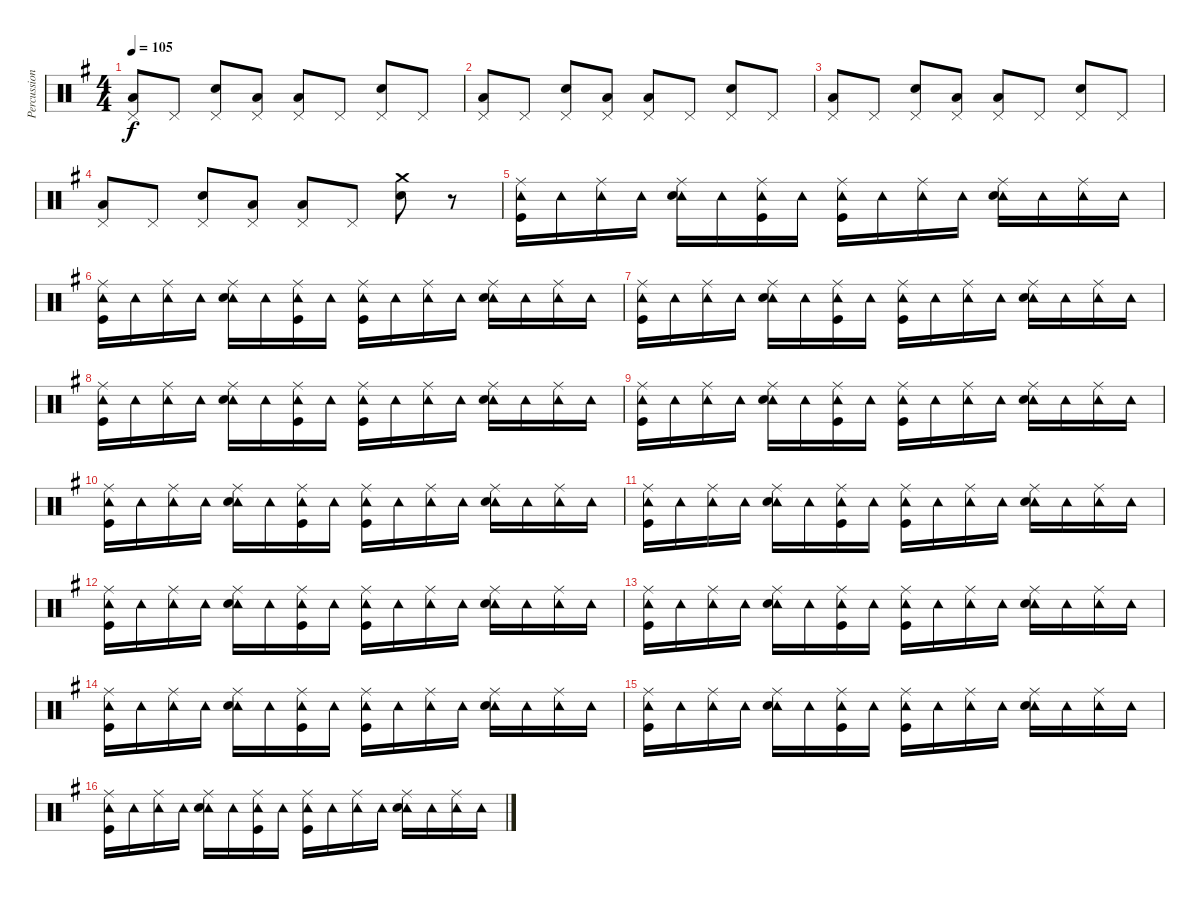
\track ("Percussion" "Percussion") {instrument percussion}
\staff {score}
\articulation defaults
\ts (4 4)
\tempo 105
\clef neutral
\ks g
("Pedal Hi-Hat (hit)" "Low Floor Tom (hit)").8{dy f} "Pedal Hi-Hat (hit)".8 ("Pedal Hi-Hat (hit)" "Snare (hit) 2").8 ("Pedal Hi-Hat (hit)" "Low Floor Tom (hit)").8 ("Pedal Hi-Hat (hit)" "Low Floor Tom (hit)").8 "Pedal Hi-Hat (hit)".8 ("Pedal Hi-Hat (hit)" "Snare (hit) 2").8 "Pedal Hi-Hat (hit)".8 |
("Pedal Hi-Hat (hit)" "Low Floor Tom (hit)").8 "Pedal Hi-Hat (hit)".8 ("Pedal Hi-Hat (hit)" "Snare (hit) 2").8 ("Pedal Hi-Hat (hit)" "Low Floor Tom (hit)").8 ("Pedal Hi-Hat (hit)" "Low Floor Tom (hit)").8 "Pedal Hi-Hat (hit)".8 ("Pedal Hi-Hat (hit)" "Snare (hit) 2").8 "Pedal Hi-Hat (hit)".8 |
("Pedal Hi-Hat (hit)" "Low Floor Tom (hit)").8 "Pedal Hi-Hat (hit)".8 ("Pedal Hi-Hat (hit)" "Snare (hit) 2").8 ("Pedal Hi-Hat (hit)" "Low Floor Tom (hit)").8 ("Pedal Hi-Hat (hit)" "Low Floor Tom (hit)").8 "Pedal Hi-Hat (hit)".8 ("Pedal Hi-Hat (hit)" "Snare (hit) 2").8 "Pedal Hi-Hat (hit)".8 |
("Pedal Hi-Hat (hit)" "Low Floor Tom (hit)").8 "Pedal Hi-Hat (hit)".8 ("Pedal Hi-Hat (hit)" "Snare (hit) 2").8 ("Pedal Hi-Hat (hit)" "Low Floor Tom (hit)").8 ("Pedal Hi-Hat (hit)" "Low Floor Tom (hit)").8 "Pedal Hi-Hat (hit)".8 ("Crash medium (hit)" "Snare (hit) 2").8 r.8 |
("Ride (middle)" "Tambourine (hit)" "Kick (hit)").16 "Tambourine (hit)".16 ("Ride (middle)" "Tambourine (hit)").16 "Tambourine (hit)".16 ("Ride (middle)" "Tambourine (hit)" "Snare (hit) 2").16 "Tambourine (hit)".16 ("Ride (middle)" "Tambourine (hit)" "Kick (hit)").16 "Tambourine (hit)".16 ("Ride (middle)" "Tambourine (hit)" "Kick (hit)").16 "Tambourine (hit)".16 ("Ride (middle)" "Tambourine (hit)").16 "Tambourine (hit)".16 ("Ride (middle)" "Tambourine (hit)" "Snare (hit) 2").16 "Tambourine (hit)".16 ("Ride (middle)" "Tambourine (hit)").16 "Tambourine (hit)".16 |
("Ride (middle)" "Tambourine (hit)" "Kick (hit)").16 "Tambourine (hit)".16 ("Ride (middle)" "Tambourine (hit)").16 "Tambourine (hit)".16 ("Ride (middle)" "Tambourine (hit)" "Snare (hit) 2").16 "Tambourine (hit)".16 ("Ride (middle)" "Tambourine (hit)" "Kick (hit)").16 "Tambourine (hit)".16 ("Ride (middle)" "Tambourine (hit)" "Kick (hit)").16 "Tambourine (hit)".16 ("Ride (middle)" "Tambourine (hit)").16 "Tambourine (hit)".16 ("Ride (middle)" "Tambourine (hit)" "Snare (hit) 2").16 "Tambourine (hit)".16 ("Ride (middle)" "Tambourine (hit)").16 "Tambourine (hit)".16 |
("Ride (middle)" "Tambourine (hit)" "Kick (hit)").16 "Tambourine (hit)".16 ("Ride (middle)" "Tambourine (hit)").16 "Tambourine (hit)".16 ("Ride (middle)" "Tambourine (hit)" "Snare (hit) 2").16 "Tambourine (hit)".16 ("Ride (middle)" "Tambourine (hit)" "Kick (hit)").16 "Tambourine (hit)".16 ("Ride (middle)" "Tambourine (hit)" "Kick (hit)").16 "Tambourine (hit)".16 ("Ride (middle)" "Tambourine (hit)").16 "Tambourine (hit)".16 ("Ride (middle)" "Tambourine (hit)" "Snare (hit) 2").16 "Tambourine (hit)".16 ("Ride (middle)" "Tambourine (hit)").16 "Tambourine (hit)".16 |
("Ride (middle)" "Tambourine (hit)" "Kick (hit)").16 "Tambourine (hit)".16 ("Ride (middle)" "Tambourine (hit)").16 "Tambourine (hit)".16 ("Ride (middle)" "Tambourine (hit)" "Snare (hit) 2").16 "Tambourine (hit)".16 ("Ride (middle)" "Tambourine (hit)" "Kick (hit)").16 "Tambourine (hit)".16 ("Ride (middle)" "Tambourine (hit)" "Kick (hit)").16 "Tambourine (hit)".16 ("Ride (middle)" "Tambourine (hit)").16 "Tambourine (hit)".16 ("Ride (middle)" "Tambourine (hit)" "Snare (hit) 2").16 "Tambourine (hit)".16 ("Ride (middle)" "Tambourine (hit)").16 "Tambourine (hit)".16 |
("Ride (middle)" "Tambourine (hit)" "Kick (hit)").16 "Tambourine (hit)".16 ("Ride (middle)" "Tambourine (hit)").16 "Tambourine (hit)".16 ("Ride (middle)" "Tambourine (hit)" "Snare (hit) 2").16 "Tambourine (hit)".16 ("Ride (middle)" "Tambourine (hit)" "Kick (hit)").16 "Tambourine (hit)".16 ("Ride (middle)" "Tambourine (hit)" "Kick (hit)").16 "Tambourine (hit)".16 ("Ride (middle)" "Tambourine (hit)").16 "Tambourine (hit)".16 ("Ride (middle)" "Tambourine (hit)" "Snare (hit) 2").16 "Tambourine (hit)".16 ("Ride (middle)" "Tambourine (hit)").16 "Tambourine (hit)".16 |
("Ride (middle)" "Tambourine (hit)" "Kick (hit)").16 "Tambourine (hit)".16 ("Ride (middle)" "Tambourine (hit)").16 "Tambourine (hit)".16 ("Ride (middle)" "Tambourine (hit)" "Snare (hit) 2").16 "Tambourine (hit)".16 ("Ride (middle)" "Tambourine (hit)" "Kick (hit)").16 "Tambourine (hit)".16 ("Ride (middle)" "Tambourine (hit)" "Kick (hit)").16 "Tambourine (hit)".16 ("Ride (middle)" "Tambourine (hit)").16 "Tambourine (hit)".16 ("Ride (middle)" "Tambourine (hit)" "Snare (hit) 2").16 "Tambourine (hit)".16 ("Ride (middle)" "Tambourine (hit)").16 "Tambourine (hit)".16 |
("Ride (middle)" "Tambourine (hit)" "Kick (hit)").16 "Tambourine (hit)".16 ("Ride (middle)" "Tambourine (hit)").16 "Tambourine (hit)".16 ("Ride (middle)" "Tambourine (hit)" "Snare (hit) 2").16 "Tambourine (hit)".16 ("Ride (middle)" "Tambourine (hit)" "Kick (hit)").16 "Tambourine (hit)".16 ("Ride (middle)" "Tambourine (hit)" "Kick (hit)").16 "Tambourine (hit)".16 ("Ride (middle)" "Tambourine (hit)").16 "Tambourine (hit)".16 ("Ride (middle)" "Tambourine (hit)" "Snare (hit) 2").16 "Tambourine (hit)".16 ("Ride (middle)" "Tambourine (hit)").16 "Tambourine (hit)".16 |
("Ride (middle)" "Tambourine (hit)" "Kick (hit)").16 "Tambourine (hit)".16 ("Ride (middle)" "Tambourine (hit)").16 "Tambourine (hit)".16 ("Ride (middle)" "Tambourine (hit)" "Snare (hit) 2").16 "Tambourine (hit)".16 ("Ride (middle)" "Tambourine (hit)" "Kick (hit)").16 "Tambourine (hit)".16 ("Ride (middle)" "Tambourine (hit)" "Kick (hit)").16 "Tambourine (hit)".16 ("Ride (middle)" "Tambourine (hit)").16 "Tambourine (hit)".16 ("Ride (middle)" "Tambourine (hit)" "Snare (hit) 2").16 "Tambourine (hit)".16 ("Ride (middle)" "Tambourine (hit)").16 "Tambourine (hit)".16 |
("Ride (middle)" "Tambourine (hit)" "Kick (hit)").16 "Tambourine (hit)".16 ("Ride (middle)" "Tambourine (hit)").16 "Tambourine (hit)".16 ("Ride (middle)" "Tambourine (hit)" "Snare (hit) 2").16 "Tambourine (hit)".16 ("Ride (middle)" "Tambourine (hit)" "Kick (hit)").16 "Tambourine (hit)".16 ("Ride (middle)" "Tambourine (hit)" "Kick (hit)").16 "Tambourine (hit)".16 ("Ride (middle)" "Tambourine (hit)").16 "Tambourine (hit)".16 ("Ride (middle)" "Tambourine (hit)" "Snare (hit) 2").16 "Tambourine (hit)".16 ("Ride (middle)" "Tambourine (hit)").16 "Tambourine (hit)".16 |
("Ride (middle)" "Tambourine (hit)" "Kick (hit)").16 "Tambourine (hit)".16 ("Ride (middle)" "Tambourine (hit)").16 "Tambourine (hit)".16 ("Ride (middle)" "Tambourine (hit)" "Snare (hit) 2").16 "Tambourine (hit)".16 ("Ride (middle)" "Tambourine (hit)" "Kick (hit)").16 "Tambourine (hit)".16 ("Ride (middle)" "Tambourine (hit)" "Kick (hit)").16 "Tambourine (hit)".16 ("Ride (middle)" "Tambourine (hit)").16 "Tambourine (hit)".16 ("Ride (middle)" "Tambourine (hit)" "Snare (hit) 2").16 "Tambourine (hit)".16 ("Ride (middle)" "Tambourine (hit)").16 "Tambourine (hit)".16 |
("Ride (middle)" "Tambourine (hit)" "Kick (hit)").16 "Tambourine (hit)".16 ("Ride (middle)" "Tambourine (hit)").16 "Tambourine (hit)".16 ("Ride (middle)" "Tambourine (hit)" "Snare (hit) 2").16 "Tambourine (hit)".16 ("Ride (middle)" "Tambourine (hit)" "Kick (hit)").16 "Tambourine (hit)".16 ("Ride (middle)" "Tambourine (hit)" "Kick (hit)").16 "Tambourine (hit)".16 ("Ride (middle)" "Tambourine (hit)").16 "Tambourine (hit)".16 ("Ride (middle)" "Tambourine (hit)" "Snare (hit) 2").16 "Tambourine (hit)".16 ("Ride (middle)" "Tambourine (hit)").16 "Tambourine (hit)".16 |
("Ride (middle)" "Tambourine (hit)" "Kick (hit)").16 "Tambourine (hit)".16 ("Ride (middle)" "Tambourine (hit)").16 "Tambourine (hit)".16 ("Ride (middle)" "Tambourine (hit)" "Snare (hit) 2").16 "Tambourine (hit)".16 ("Ride (middle)" "Tambourine (hit)" "Kick (hit)").16 "Tambourine (hit)".16 ("Ride (middle)" "Tambourine (hit)" "Kick (hit)").16 "Tambourine (hit)".16 ("Ride (middle)" "Tambourine (hit)").16 "Tambourine (hit)".16 ("Ride (middle)" "Tambourine (hit)" "Snare (hit) 2").16 "Tambourine (hit)".16 ("Ride (middle)" "Tambourine (hit)").16 "Tambourine (hit)".16
